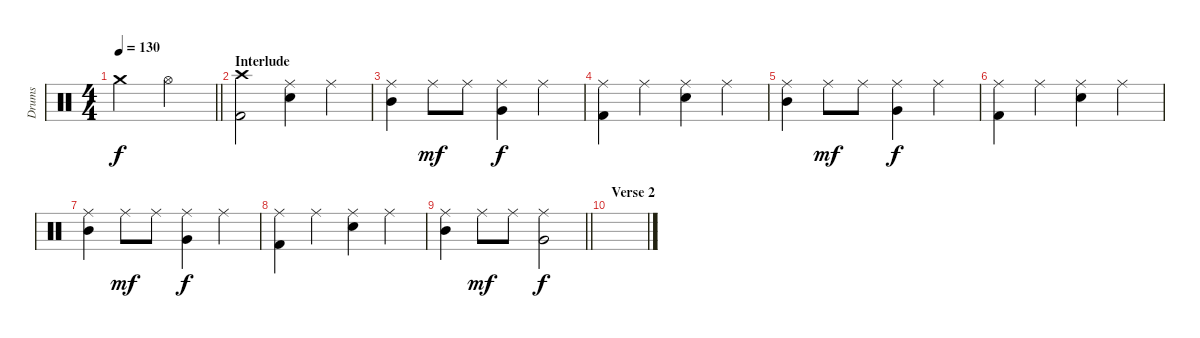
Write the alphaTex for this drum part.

\track ("Drums" "Drums") {instrument percussion}
\staff {score}
\articulation defaults
\ts (4 4)
\tempo 130
\clef neutral
\barLineRight lightlight
\ks c "Crash medium (hit)".2{dy f} "Hi-Hat (open)".2
|
\section ("" "Interlude")
("Crash high (hit)" "Kick (hit) 2").2 ("Ride (middle)" "Snare (hit) 2").4 "Ride (middle)".4 |
("Ride (middle)" "Mid Tom (hit)").4 "Ride (middle)".8{dy mf} "Ride (middle)".8 ("Ride (middle)" "Very Low Tom (hit)").4{dy f} "Ride (middle)".4 |
("Ride (middle)" "Kick (hit) 2").4 "Ride (middle)".4 ("Ride (middle)" "Snare (hit) 2").4 "Ride (middle)".4 |
("Ride (middle)" "Mid Tom (hit)").4 "Ride (middle)".8{dy mf} "Ride (middle)".8 ("Ride (middle)" "Very Low Tom (hit)").4{dy f} "Ride (middle)".4 |
("Ride (middle)" "Kick (hit) 2").4 "Ride (middle)".4 ("Ride (middle)" "Snare (hit) 2").4 "Ride (middle)".4 |
("Ride (middle)" "Mid Tom (hit)").4 "Ride (middle)".8{dy mf} "Ride (middle)".8 ("Ride (middle)" "Very Low Tom (hit)").4{dy f} "Ride (middle)".4 |
("Ride (middle)" "Kick (hit) 2").4 "Ride (middle)".4 ("Ride (middle)" "Snare (hit) 2").4 "Ride (middle)".4 |
\barLineRight lightlight
("Ride (middle)" "Mid Tom (hit)").4 "Ride (middle)".8{dy mf} "Ride (middle)".8 ("Ride (middle)" "Very Low Tom (hit)").2{dy f} |
\section ("" "Verse 2")
